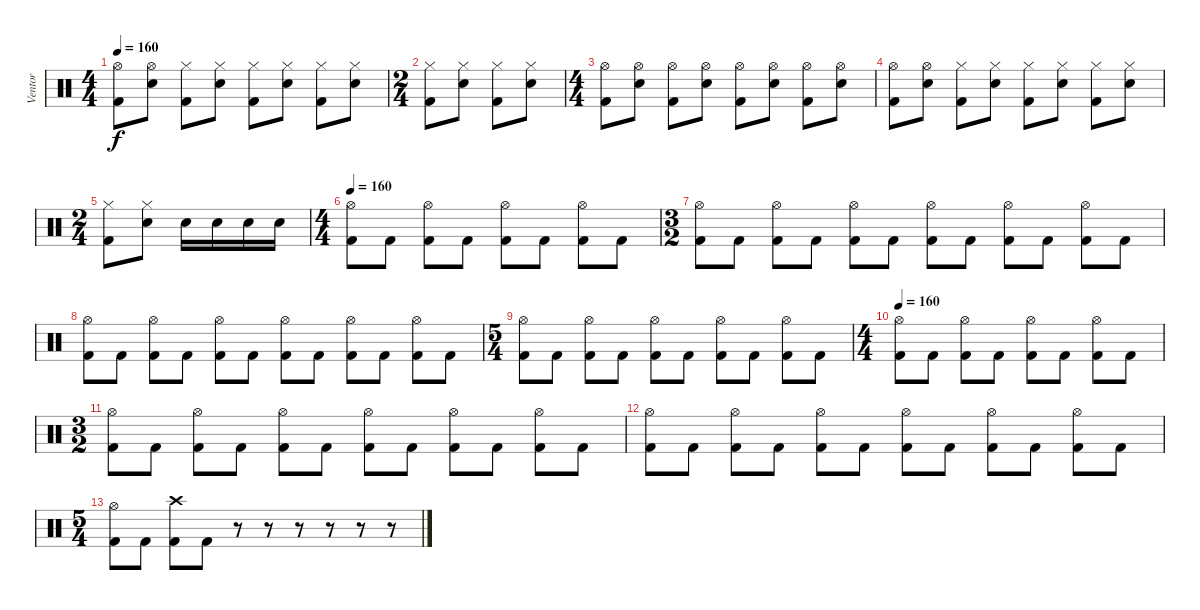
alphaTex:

\track ("Ventor" "Ventor") {instrument percussion}
\staff {score}
\articulation defaults
\ts (4 4)
\tempo 160
\clef neutral
\ks c
("Kick (hit) 2" "Hi-Hat (open)").8{dy f} ("Snare (hit) 2" "Hi-Hat (open)").8 ("Kick (hit) 2" "Hi-Hat (closed)").8 ("Snare (hit) 2" "Hi-Hat (closed)").8 ("Kick (hit) 2" "Hi-Hat (closed)").8 ("Snare (hit) 2" "Hi-Hat (closed)").8 ("Kick (hit) 2" "Hi-Hat (closed)").8 ("Snare (hit) 2" "Hi-Hat (closed)").8 |
\ts (2 4)
("Kick (hit) 2" "Hi-Hat (closed)").8 ("Snare (hit) 2" "Hi-Hat (closed)").8 ("Kick (hit) 2" "Hi-Hat (closed)").8 ("Snare (hit) 2" "Hi-Hat (closed)").8 |
\ts (4 4)
("Kick (hit) 2" "Hi-Hat (open)").8 ("Snare (hit) 2" "Hi-Hat (open)").8 ("Kick (hit) 2" "Hi-Hat (open)").8 ("Snare (hit) 2" "Hi-Hat (open)").8 ("Kick (hit) 2" "Hi-Hat (open)").8 ("Snare (hit) 2" "Hi-Hat (open)").8 ("Kick (hit) 2" "Hi-Hat (open)").8 ("Snare (hit) 2" "Hi-Hat (open)").8 |
("Kick (hit) 2" "Hi-Hat (open)").8 ("Snare (hit) 2" "Hi-Hat (open)").8 ("Kick (hit) 2" "Hi-Hat (closed)").8 ("Snare (hit) 2" "Hi-Hat (closed)").8 ("Kick (hit) 2" "Hi-Hat (closed)").8 ("Snare (hit) 2" "Hi-Hat (closed)").8 ("Kick (hit) 2" "Hi-Hat (closed)").8 ("Snare (hit) 2" "Hi-Hat (closed)").8 |
\ts (2 4)
("Kick (hit) 2" "Hi-Hat (closed)").8 ("Snare (hit) 2" "Hi-Hat (closed)").8 "Snare (hit) 2".16 "Snare (hit) 2".16 "Snare (hit) 2".16 "Snare (hit) 2".16 |
\ts (4 4)
\tempo 160
("Kick (hit) 2" "Hi-Hat (open)").8 "Kick (hit) 2".8 ("Kick (hit) 2" "Hi-Hat (open)").8 "Kick (hit) 2".8 ("Kick (hit) 2" "Hi-Hat (open)").8 "Kick (hit) 2".8 ("Kick (hit) 2" "Hi-Hat (open)").8 "Kick (hit) 2".8 |
\ts (3 2)
("Kick (hit) 2" "Hi-Hat (open)").8 "Kick (hit) 2".8 ("Kick (hit) 2" "Hi-Hat (open)").8 "Kick (hit) 2".8 ("Kick (hit) 2" "Hi-Hat (open)").8 "Kick (hit) 2".8 ("Kick (hit) 2" "Hi-Hat (open)").8 "Kick (hit) 2".8 ("Kick (hit) 2" "Hi-Hat (open)").8 "Kick (hit) 2".8 ("Kick (hit) 2" "Hi-Hat (open)").8 "Kick (hit) 2".8 |
("Kick (hit) 2" "Hi-Hat (open)").8 "Kick (hit) 2".8 ("Kick (hit) 2" "Hi-Hat (open)").8 "Kick (hit) 2".8 ("Kick (hit) 2" "Hi-Hat (open)").8 "Kick (hit) 2".8 ("Kick (hit) 2" "Hi-Hat (open)").8 "Kick (hit) 2".8 ("Kick (hit) 2" "Hi-Hat (open)").8 "Kick (hit) 2".8 ("Kick (hit) 2" "Hi-Hat (open)").8 "Kick (hit) 2".8 |
\ts (5 4)
("Kick (hit) 2" "Hi-Hat (open)").8 "Kick (hit) 2".8 ("Kick (hit) 2" "Hi-Hat (open)").8 "Kick (hit) 2".8 ("Kick (hit) 2" "Hi-Hat (open)").8 "Kick (hit) 2".8 ("Kick (hit) 2" "Hi-Hat (open)").8 "Kick (hit) 2".8 ("Kick (hit) 2" "Hi-Hat (open)").8 "Kick (hit) 2".8 |
\ts (4 4)
\tempo 160
("Kick (hit) 2" "Hi-Hat (open)").8 "Kick (hit) 2".8 ("Kick (hit) 2" "Hi-Hat (open)").8 "Kick (hit) 2".8 ("Kick (hit) 2" "Hi-Hat (open)").8 "Kick (hit) 2".8 ("Kick (hit) 2" "Hi-Hat (open)").8 "Kick (hit) 2".8 |
\ts (3 2)
("Kick (hit) 2" "Hi-Hat (open)").8 "Kick (hit) 2".8 ("Kick (hit) 2" "Hi-Hat (open)").8 "Kick (hit) 2".8 ("Kick (hit) 2" "Hi-Hat (open)").8 "Kick (hit) 2".8 ("Kick (hit) 2" "Hi-Hat (open)").8 "Kick (hit) 2".8 ("Kick (hit) 2" "Hi-Hat (open)").8 "Kick (hit) 2".8 ("Kick (hit) 2" "Hi-Hat (open)").8 "Kick (hit) 2".8 |
("Kick (hit) 2" "Hi-Hat (open)").8 "Kick (hit) 2".8 ("Kick (hit) 2" "Hi-Hat (open)").8 "Kick (hit) 2".8 ("Kick (hit) 2" "Hi-Hat (open)").8 "Kick (hit) 2".8 ("Kick (hit) 2" "Hi-Hat (open)").8 "Kick (hit) 2".8 ("Kick (hit) 2" "Hi-Hat (open)").8 "Kick (hit) 2".8 ("Kick (hit) 2" "Hi-Hat (open)").8 "Kick (hit) 2".8 |
\ts (5 4)
("Kick (hit) 2" "Hi-Hat (open)").8 "Kick (hit) 2".8 ("Kick (hit) 2" "Crash high (hit)").8 "Kick (hit) 2".8 r.8 r.8 r.8 r.8 r.8 r.8
